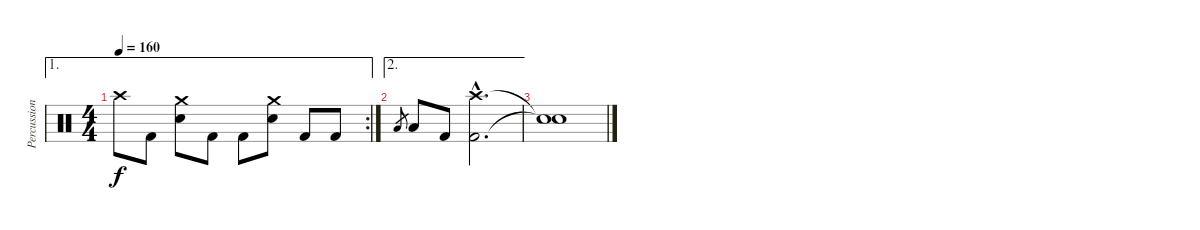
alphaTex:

\track ("Percussion" "Percussion") {instrument percussion}
\staff {score}
\articulation defaults
\ae 1
\rc 2
\ts (4 4)
\tempo 160
\clef neutral
\ks c "Crash high (hit)".8{dy f} "Kick (hit) 2".8
("Crash medium (hit)" "Electric Snare (hit)").8 "Kick (hit) 2".8 "Kick (hit) 2".8 ("Crash medium (hit)" "Electric Snare (hit)").8 "Kick (hit) 2".8 "Kick (hit) 2".8 |
\ae 2 "Low Tom (hit)".8{gr} "Low Tom (hit)".8 "Kick (hit) 2".8
("Crash high (hit)"{hac} "Kick (hit) 2"{hac}).2{d} |
("Snare (hit)"{t} "Snare (hit)"{t}).1
